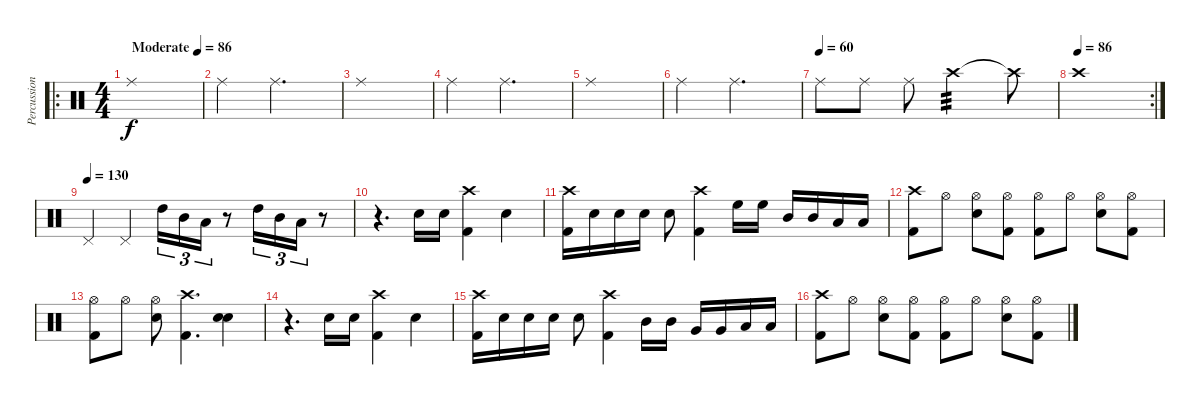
\track ("Percussion" "Percussion") {instrument percussion}
\staff {score}
\articulation defaults
\ro
\ts (4 4)
\tempo (86 "Moderate")
\clef neutral
\ks c "Ride (middle)".1{dy f}
|
"Ride (middle)".4 "Ride (middle)".2{d} |
"Ride (middle)".1 |
"Ride (middle)".4 "Ride (middle)".2{d} |
"Ride (middle)".1 |
"Ride (middle)".4 "Ride (middle)".2{d} |
\tempo (60)
"Ride (middle)".8 "Ride (middle)".8 "Ride (middle)".8 "Crash high (hit)".2{tp 3} "Crash high (hit)"{t}.8 |
\rc 2
\tempo (86)
"Crash high (hit)".1 |
\tempo (130)
"Pedal Hi-Hat (hit)".4 "Pedal Hi-Hat (hit)".4 "High Tom (hit)".16{tu (3 2)} "Mid Tom (hit)".16{tu (3 2)} "Low Floor Tom (hit)".16{tu (3 2)} r.8 "High Tom (hit)".16{tu (3 2)} "Mid Tom (hit)".16{tu (3 2)} "Low Floor Tom (hit)".16{tu (3 2)} r.8 |
r.4{d} "Snare (hit) 2".16 "Snare (hit) 2".16 ("Crash high (hit)" "Kick (hit) 2").4 "Snare (hit) 2".4 |
("Crash high (hit)" "Kick (hit) 2").16 "Snare (hit) 2".16 "Snare (hit) 2".16 "Snare (hit) 2".16 "Snare (hit) 2".8 ("Crash high (hit)" "Kick (hit) 2").4 "High Floor Tom (hit)".16 "High Floor Tom (hit)".16 "Mid Tom (hit)".16 "Mid Tom (hit)".16 "Low Floor Tom (hit)".16 "Low Floor Tom (hit)".16 |
("Crash high (hit)" "Kick (hit) 2").8 "Hi-Hat (open)".8 ("Hi-Hat (open)" "Snare (hit) 2").8 ("Hi-Hat (open)" "Kick (hit) 2").8 ("Hi-Hat (open)" "Kick (hit) 2").8 "Hi-Hat (open)".8 ("Hi-Hat (open)" "Snare (hit) 2").8 ("Hi-Hat (open)" "Kick (hit) 2").8 |
("Hi-Hat (open)" "Kick (hit) 2").8 "Hi-Hat (open)".8 ("Hi-Hat (open)" "Snare (hit) 2").8 ("Crash high (hit)" "Kick (hit) 2").4{d} ("Electric Snare (hit)" "Electric Snare (hit)").4 |
r.4{d} "Snare (hit) 2".16 "Snare (hit) 2".16 ("Crash high (hit)" "Kick (hit) 2").4 "Snare (hit) 2".4 |
("Crash high (hit)" "Kick (hit) 2").16 "Snare (hit) 2".16 "Snare (hit) 2".16 "Snare (hit) 2".16 "Snare (hit) 2".8 ("Crash high (hit)" "Kick (hit) 2").4 "Mid Tom (hit)".16 "Mid Tom (hit)".16 "Very Low Tom (hit)".16 "Very Low Tom (hit)".16 "Low Floor Tom (hit)".16 "Low Floor Tom (hit)".16 |
("Crash high (hit)" "Kick (hit) 2").8 "Hi-Hat (open)".8 ("Hi-Hat (open)" "Snare (hit) 2").8 ("Hi-Hat (open)" "Kick (hit) 2").8 ("Hi-Hat (open)" "Kick (hit) 2").8 "Hi-Hat (open)".8 ("Hi-Hat (open)" "Snare (hit) 2").8 ("Hi-Hat (open)" "Kick (hit) 2").8
